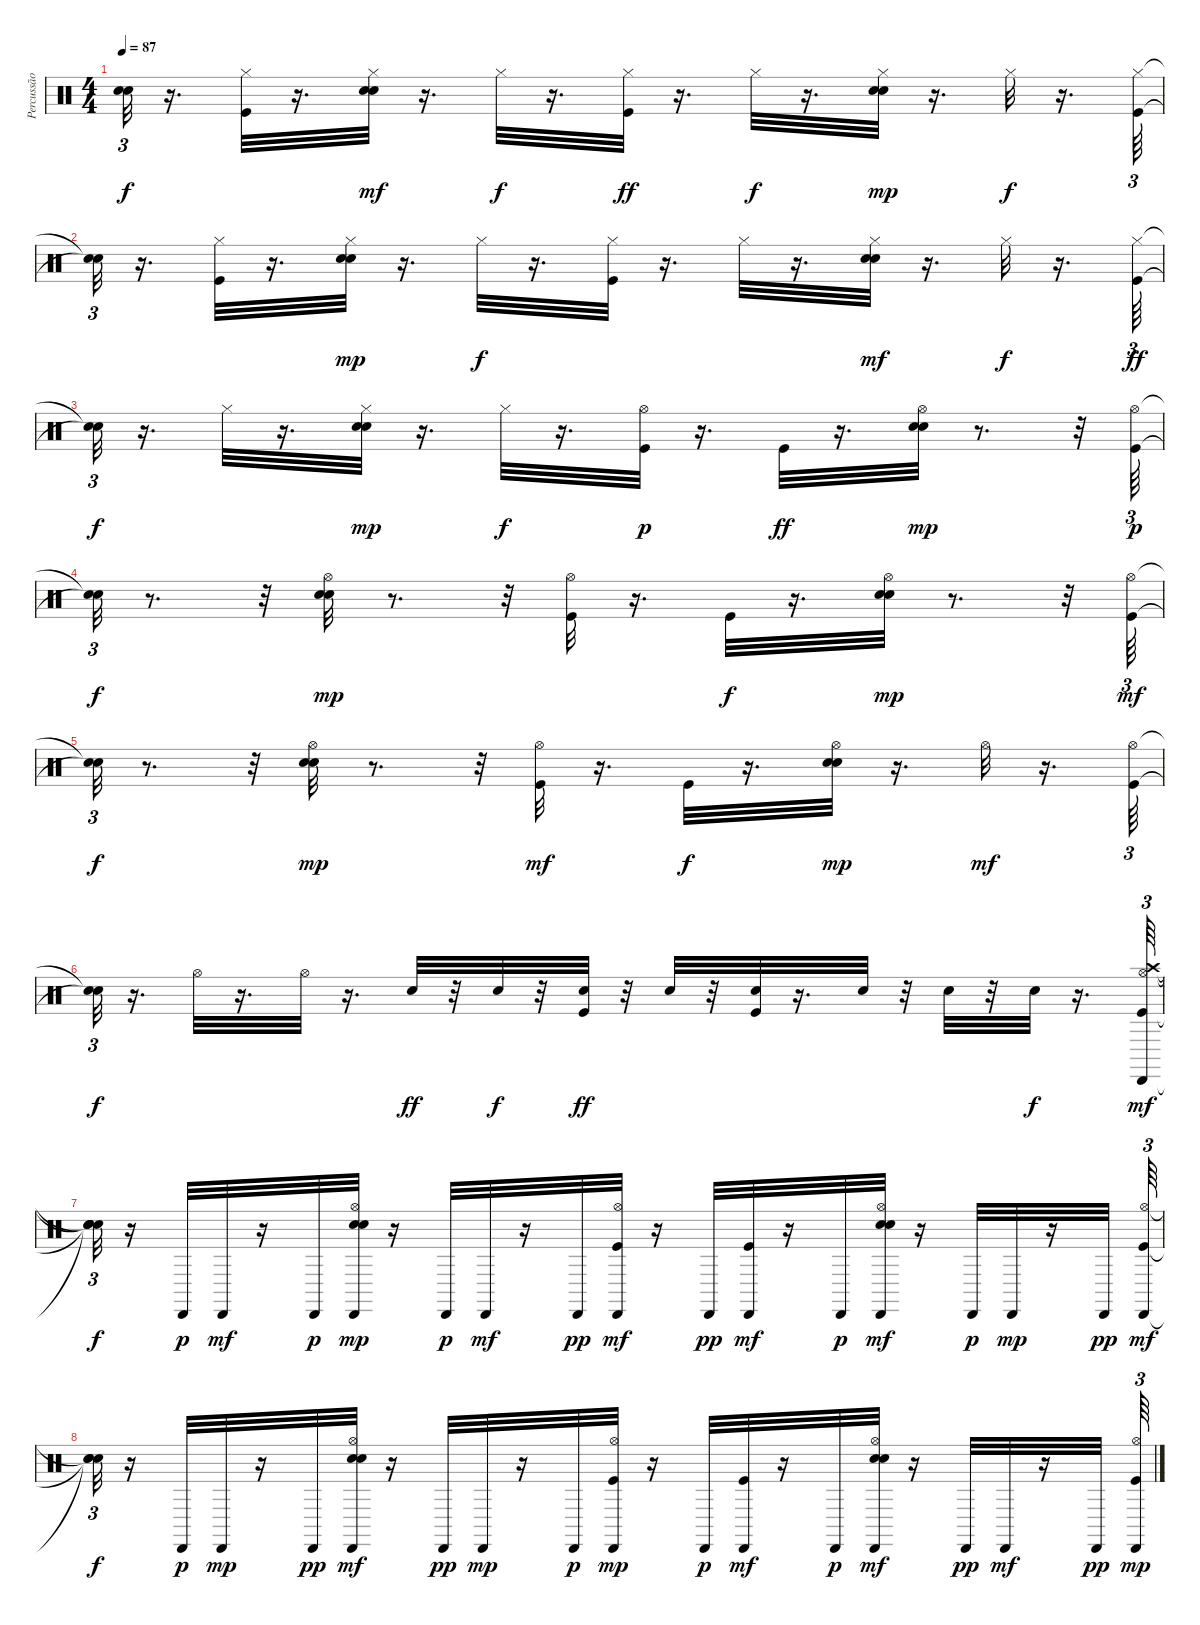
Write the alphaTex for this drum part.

\track ("Percussão" "Percussão") {instrument percussion}
\staff {score}
\articulation defaults
\ts (4 4)
\tempo 87
\clef neutral
\ks c
("Snare (hit)"{t} "Snare (hit)"{t}).32{tu (3 2) dy f} r.16{d} ("Kick (hit)" "Hi-Hat (closed)").32 r.16{d} ("Electric Snare (hit)" "Hi-Hat (closed)" "Hand Clap (hit)").32{dy mf} r.16{d} "Hi-Hat (closed)".32{dy f} r.16{d} ("Kick (hit)" "Hi-Hat (closed)").32{dy ff} r.16{d} "Hi-Hat (closed)".32{dy f} r.16{d} ("Electric Snare (hit)" "Hi-Hat (closed)" "Hand Clap (hit)").32{dy mp} r.16{d} "Hi-Hat (closed)".32{dy f} r.16{d} ("Kick (hit)" "Hi-Hat (closed)").64{tu (3 2)} |
("Snare (hit)"{t} "Snare (hit)"{t}).32{tu (3 2)} r.16{d} ("Kick (hit)" "Hi-Hat (closed)").32 r.16{d} ("Electric Snare (hit)" "Hi-Hat (closed)" "Hand Clap (hit)").32{dy mp} r.16{d} "Hi-Hat (closed)".32{dy f} r.16{d} ("Kick (hit)" "Hi-Hat (closed)").32 r.16{d} "Hi-Hat (closed)".32 r.16{d} ("Electric Snare (hit)" "Hi-Hat (closed)" "Hand Clap (hit)").32{dy mf} r.16{d} "Hi-Hat (closed)".32{dy f} r.16{d} ("Kick (hit)" "Hi-Hat (closed)").64{tu (3 2) dy ff} |
("Snare (hit)"{t} "Snare (hit)"{t}).32{tu (3 2) dy f} r.16{d} "Hi-Hat (closed)".32 r.16{d} ("Electric Snare (hit)" "Hi-Hat (closed)" "Hand Clap (hit)").32{dy mp} r.16{d} "Hi-Hat (closed)".32{dy f} r.16{d} ("Kick (hit)" "Hi-Hat (open)").32{dy p} r.16{d} "Kick (hit)".32{dy ff} r.16{d} ("Electric Snare (hit)" "Hi-Hat (open)" "Hand Clap (hit)").32{dy mp} r.8{d} r.32 ("Kick (hit)" "Hi-Hat (open)").64{tu (3 2) dy p} |
("Snare (hit)"{t} "Snare (hit)"{t}).32{tu (3 2) dy f} r.8{d} r.32 ("Electric Snare (hit)" "Hi-Hat (open)" "Hand Clap (hit)").32{dy mp} r.8{d} r.32 ("Kick (hit)" "Hi-Hat (open)").32 r.16{d} "Kick (hit)".32{dy f} r.16{d} ("Electric Snare (hit)" "Hi-Hat (open)" "Hand Clap (hit)").32{dy mp} r.8{d} r.32 ("Kick (hit)" "Hi-Hat (open)").64{tu (3 2) dy mf} |
("Snare (hit)"{t} "Snare (hit)"{t}).32{tu (3 2) dy f} r.8{d} r.32 ("Electric Snare (hit)" "Hi-Hat (open)" "Hand Clap (hit)").32{dy mp} r.8{d} r.32 ("Kick (hit)" "Hi-Hat (open)").32{dy mf} r.16{d} "Kick (hit)".32{dy f} r.16{d} ("Electric Snare (hit)" "Hi-Hat (open)" "Hand Clap (hit)").32{dy mp} r.16{d} "Hi-Hat (open)".32{dy mf} r.16{d} ("Kick (hit)" "Hi-Hat (open)").64{tu (3 2)} |
("Snare (hit)"{t} "Snare (hit)"{t}).32{tu (3 2) dy f} r.16{d} "Hi-Hat (open)".32 r.16{d} "Hi-Hat (open)".32 r.16{d} "Electric Snare (hit)".32{dy ff} r.32 "Electric Snare (hit)".32{dy f} r.32 ("Kick (hit)" "Electric Snare (hit)").32{dy ff} r.32 "Electric Snare (hit)".32 r.32 ("Kick (hit)" "Electric Snare (hit)").32 r.16{d} "Electric Snare (hit)".32 r.32 "Electric Snare (hit)".32 r.32 "Electric Snare (hit)".32{dy f} r.16{d} ("Kick (hit)" "Hi-Hat (open)" "Crash high (hit)" "Cabasa (hit)").64{tu (3 2) dy mf} |
("Snare (hit)"{t} "Snare (hit)"{t} "Snare (hit)"{t} "Snare (hit)"{t}).32{tu (3 2) dy f} r.16 "Cabasa (hit)".32{dy p} "Cabasa (hit)".32{dy mf} r.16 "Cabasa (hit)".32{dy p} ("Electric Snare (hit)" "Hi-Hat (open)" "Hand Clap (hit)" "Cabasa (hit)").32{dy mp} r.16 "Cabasa (hit)".32{dy p} "Cabasa (hit)".32{dy mf} r.16 "Cabasa (hit)".32{dy pp} ("Kick (hit)" "Hi-Hat (open)" "Cabasa (hit)").32{dy mf} r.16 "Cabasa (hit)".32{dy pp} ("Kick (hit)" "Cabasa (hit)").32{dy mf} r.16 "Cabasa (hit)".32{dy p} ("Electric Snare (hit)" "Hi-Hat (open)" "Hand Clap (hit)" "Cabasa (hit)").32{dy mf} r.16 "Cabasa (hit)".32{dy p} "Cabasa (hit)".32{dy mp} r.16 "Cabasa (hit)".32{dy pp} ("Kick (hit)" "Hi-Hat (open)" "Cabasa (hit)").64{tu (3 2) dy mf} |
("Snare (hit)"{t} "Snare (hit)"{t} "Snare (hit)"{t}).32{tu (3 2) dy f} r.16 "Cabasa (hit)".32{dy p} "Cabasa (hit)".32{dy mp} r.16 "Cabasa (hit)".32{dy pp} ("Electric Snare (hit)" "Hi-Hat (open)" "Hand Clap (hit)" "Cabasa (hit)").32{dy mf} r.16 "Cabasa (hit)".32{dy pp} "Cabasa (hit)".32{dy mp} r.16 "Cabasa (hit)".32{dy p} ("Kick (hit)" "Hi-Hat (open)" "Cabasa (hit)").32{dy mp} r.16 "Cabasa (hit)".32{dy p} ("Kick (hit)" "Cabasa (hit)").32{dy mf} r.16 "Cabasa (hit)".32{dy p} ("Electric Snare (hit)" "Hi-Hat (open)" "Hand Clap (hit)" "Cabasa (hit)").32{dy mf} r.16 "Cabasa (hit)".32{dy pp} "Cabasa (hit)".32{dy mf} r.16 "Cabasa (hit)".32{dy pp} ("Kick (hit)" "Hi-Hat (open)" "Cabasa (hit)").64{tu (3 2) dy mp}
